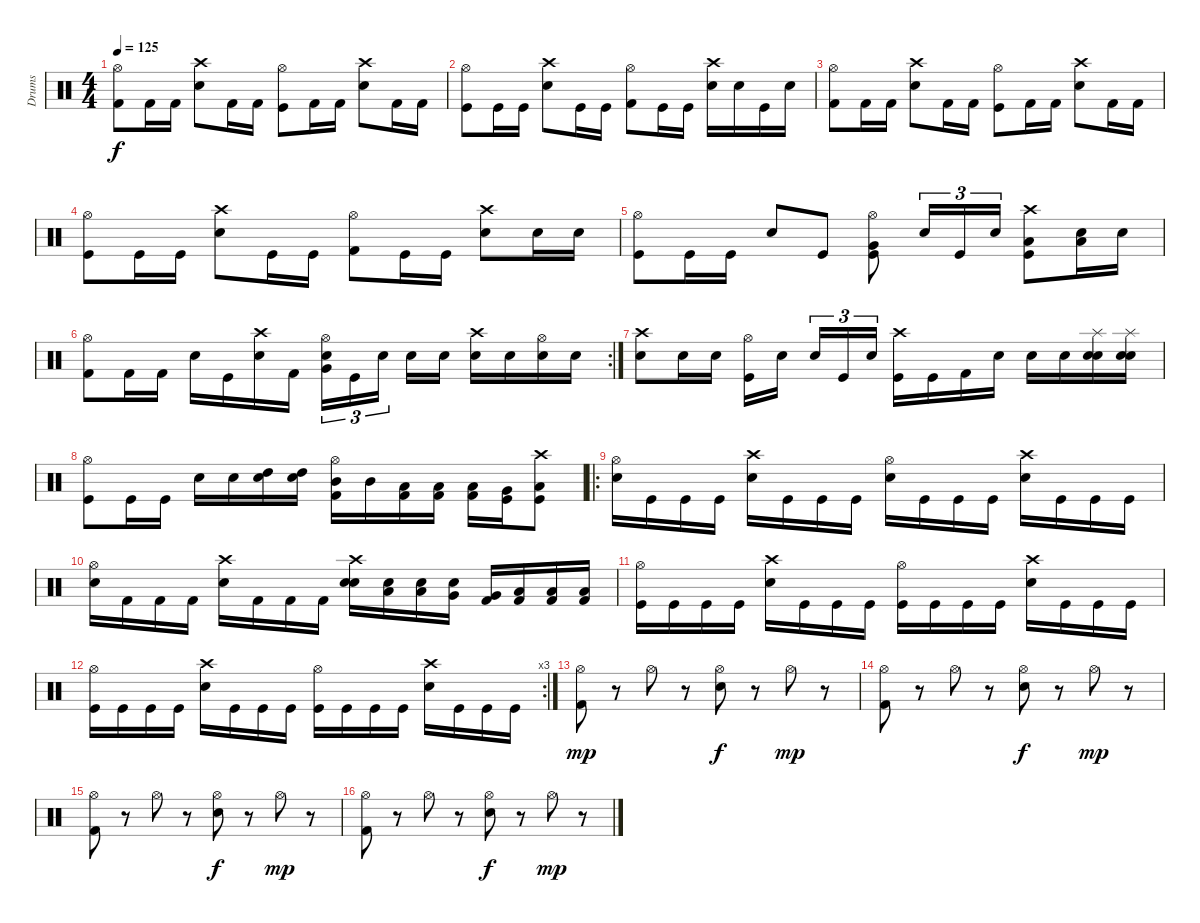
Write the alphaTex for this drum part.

\track ("Drums" "Drums") {instrument percussion}
\staff {score}
\articulation defaults
\ts (4 4)
\tempo 125
\clef neutral
\ks c
("Hi-Hat (open)" "Kick (hit) 2").8{dy f} "Kick (hit) 2".16 "Kick (hit) 2".16 ("Crash high (hit)" "Electric Snare (hit)").8 "Kick (hit) 2".16 "Kick (hit) 2".16 ("Hi-Hat (open)" "Kick (hit)").8 "Kick (hit) 2".16 "Kick (hit) 2".16 ("Crash high (hit)" "Electric Snare (hit)").8 "Kick (hit) 2".16 "Kick (hit) 2".16 |
("Hi-Hat (open)" "Kick (hit)").8 "Kick (hit)".16 "Kick (hit)".16 ("Crash high (hit)" "Electric Snare (hit)").8 "Kick (hit)".16 "Kick (hit)".16 ("Hi-Hat (open)" "Kick (hit) 2").8 "Kick (hit)".16 "Kick (hit)".16 ("Crash high (hit)" "Electric Snare (hit)").16 "Snare (hit) 2".16 "Kick (hit)".16 "Snare (hit) 2".16 |
("Hi-Hat (open)" "Kick (hit) 2").8 "Kick (hit) 2".16 "Kick (hit) 2".16 ("Crash high (hit)" "Electric Snare (hit)").8 "Kick (hit) 2".16 "Kick (hit) 2".16 ("Hi-Hat (open)" "Kick (hit)").8 "Kick (hit) 2".16 "Kick (hit) 2".16 ("Crash high (hit)" "Electric Snare (hit)").8 "Kick (hit) 2".16 "Kick (hit) 2".16 |
("Hi-Hat (open)" "Kick (hit)").8 "Kick (hit)".16 "Kick (hit)".16 ("Crash high (hit)" "Electric Snare (hit)").8 "Kick (hit)".16 "Kick (hit)".16 ("Hi-Hat (open)" "Kick (hit) 2").8 "Kick (hit)".16 "Kick (hit)".16 ("Crash high (hit)" "Electric Snare (hit)").8 "Snare (hit) 2".16 "Snare (hit) 2".16 |
("Hi-Hat (open)" "Kick (hit)").8 "Kick (hit)".16 "Kick (hit)".16 "Electric Snare (hit)".8 "Kick (hit)".8 ("Hi-Hat (open)" "Very Low Tom (hit)" "Kick (hit)").8 "Snare (hit) 2".16{tu (3 2)} "Kick (hit)".16{tu (3 2)} "Snare (hit) 2".16{tu (3 2)} ("Crash high (hit)" "Low Floor Tom (hit)" "Kick (hit)").8 ("Low Floor Tom (hit)" "Snare (hit) 2").16 "Snare (hit) 2".16 |
\rc 2
("Hi-Hat (open)" "Kick (hit) 2").8 "Kick (hit) 2".16 "Kick (hit) 2".16 "Snare (hit) 2".16 "Kick (hit)".16 ("Crash high (hit)" "Electric Snare (hit)").16 "Kick (hit) 2".16 ("Hi-Hat (open)" "Very Low Tom (hit)" "Snare (hit) 2").16{tu (3 2)} "Kick (hit)".16{tu (3 2)} "Snare (hit) 2".16{tu (3 2)} "Snare (hit) 2".16 "Snare (hit) 2".16 ("Crash high (hit)" "Snare (hit) 2").16 "Snare (hit) 2".16 ("Hi-Hat (open)" "Electric Snare (hit)").16 "Electric Snare (hit)".16 |
("Crash high (hit)" "Electric Snare (hit)").8 "Electric Snare (hit)".16 "Electric Snare (hit)".16 ("Hi-Hat (open)" "Kick (hit)").16 "Electric Snare (hit)".16 "Snare (hit) 2".16{tu (3 2)} "Kick (hit)".16{tu (3 2)} "Snare (hit) 2".16{tu (3 2)} ("Crash high (hit)" "Kick (hit)").16 "Kick (hit)".16 "Kick (hit) 2".16 "Electric Snare (hit)".16 "Electric Snare (hit)".16 "Electric Snare (hit)".16 ("Splash (hit)" "Snare (hit) 2" "Electric Snare (hit)").16 ("Splash (hit)" "Snare (hit) 2" "Electric Snare (hit)").16 |
("Hi-Hat (open)" "Kick (hit)").8 "Kick (hit)".16 "Kick (hit)".16 "Electric Snare (hit)".16 "Electric Snare (hit)".16 ("High Tom (hit)" "Snare (hit) 2").16 ("High Tom (hit)" "Snare (hit) 2").16 ("Hi-Hat (open)" "Mid Tom (hit)" "Kick (hit) 2").16 "Mid Tom (hit)".16 ("Low Tom (hit)" "Kick (hit) 2").16 ("Low Tom (hit)" "Kick (hit) 2").16 ("Low Tom (hit)" "Kick (hit) 2").16 ("Very Low Tom (hit)" "Kick (hit)").16 ("Crash high (hit)" "Low Floor Tom (hit)" "Kick (hit)").8 |
\ro
("Hi-Hat (open)" "Electric Snare (hit)").16 "Kick (hit)".16 "Kick (hit)".16 "Kick (hit)".16 ("Crash high (hit)" "Electric Snare (hit)").16 "Kick (hit)".16 "Kick (hit)".16 "Kick (hit)".16 ("Hi-Hat (open)" "Electric Snare (hit)").16 "Kick (hit)".16 "Kick (hit)".16 "Kick (hit)".16 ("Crash high (hit)" "Electric Snare (hit)").16 "Kick (hit)".16 "Kick (hit)".16 "Kick (hit)".16 |
("Hi-Hat (open)" "Electric Snare (hit)").16 "Kick (hit) 2".16 "Kick (hit) 2".16 "Kick (hit) 2".16 ("Crash high (hit)" "Electric Snare (hit)").16 "Kick (hit) 2".16 "Kick (hit) 2".16 "Kick (hit) 2".16 ("Crash high (hit)" "Electric Snare (hit)" "Snare (hit) 2").16 ("Low Tom (hit)" "Snare (hit) 2").16 ("Low Tom (hit)" "Snare (hit) 2").16 ("Very Low Tom (hit)" "Snare (hit) 2").16 ("Very Low Tom (hit)" "Kick (hit) 2").16 ("Low Floor Tom (hit)" "Kick (hit) 2").16 ("Low Floor Tom (hit)" "Kick (hit) 2").16 ("Low Floor Tom (hit)" "Kick (hit) 2").16 |
("Hi-Hat (open)" "Kick (hit)").16 "Kick (hit)".16 "Kick (hit)".16 "Kick (hit)".16 ("Crash high (hit)" "Electric Snare (hit)").16 "Kick (hit)".16 "Kick (hit)".16 "Kick (hit)".16 ("Hi-Hat (open)" "Kick (hit)").16 "Kick (hit)".16 "Kick (hit)".16 "Kick (hit)".16 ("Crash high (hit)" "Electric Snare (hit)").16 "Kick (hit)".16 "Kick (hit)".16 "Kick (hit)".16 |
\rc 3
("Hi-Hat (open)" "Kick (hit)").16 "Kick (hit)".16 "Kick (hit)".16 "Kick (hit)".16 ("Crash high (hit)" "Electric Snare (hit)").16 "Kick (hit)".16 "Kick (hit)".16 "Kick (hit)".16 ("Hi-Hat (open)" "Kick (hit)").16 "Kick (hit)".16 "Kick (hit)".16 "Kick (hit)".16 ("Crash high (hit)" "Electric Snare (hit)").16 "Kick (hit)".16 "Kick (hit)".16 "Kick (hit)".16 |
("Hi-Hat (open)" "Kick (hit) 2").8{dy mp} r.8 "Hi-Hat (open)".8 r.8 ("Hi-Hat (open)" "Electric Snare (hit)").8{dy f} r.8 "Hi-Hat (open)".8{dy mp} r.8 |
("Hi-Hat (open)" "Kick (hit) 2").8 r.8 "Hi-Hat (open)".8 r.8 ("Hi-Hat (open)" "Electric Snare (hit)").8{dy f} r.8 "Hi-Hat (open)".8{dy mp} r.8 |
("Hi-Hat (open)" "Kick (hit) 2").8 r.8 "Hi-Hat (open)".8 r.8 ("Hi-Hat (open)" "Electric Snare (hit)").8{dy f} r.8 "Hi-Hat (open)".8{dy mp} r.8 |
("Hi-Hat (open)" "Kick (hit) 2").8 r.8 "Hi-Hat (open)".8 r.8 ("Hi-Hat (open)" "Electric Snare (hit)").8{dy f} r.8 "Hi-Hat (open)".8{dy mp} r.8
